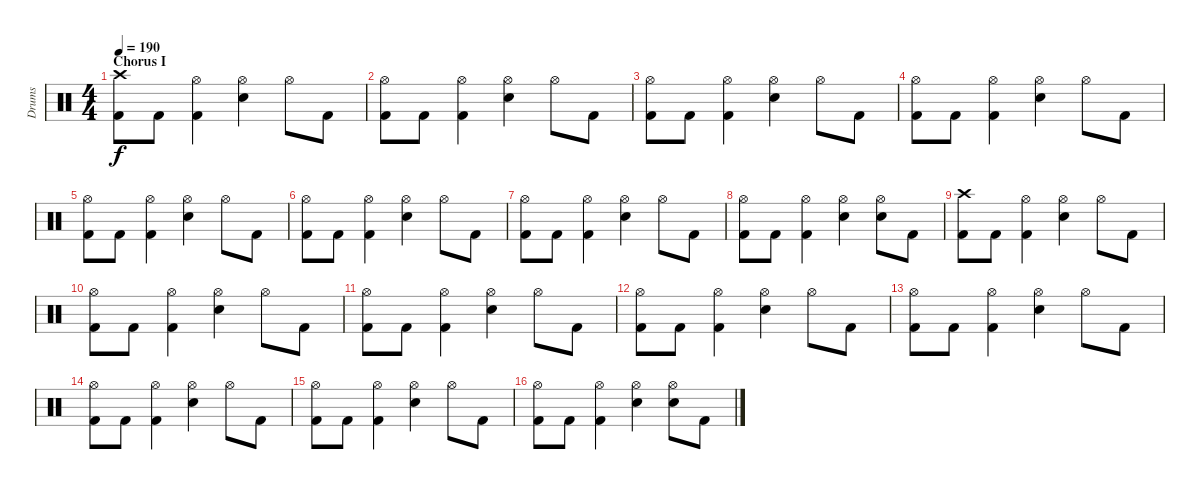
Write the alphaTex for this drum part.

\track ("Drums" "Drums") {instrument percussion}
\staff {score}
\articulation defaults
\ts (4 4)
\section ("" "Chorus I")
\tempo 190
\clef neutral
\ks c
("Crash high (hit)" "Kick (hit) 2").8{dy f} "Kick (hit) 2".8 ("Hi-Hat (open)" "Kick (hit) 2").4 ("Hi-Hat (open)" "Snare (hit) 2").4 "Hi-Hat (open)".8 "Kick (hit) 2".8 |
("Hi-Hat (open)" "Kick (hit) 2").8 "Kick (hit) 2".8 ("Hi-Hat (open)" "Kick (hit) 2").4 ("Hi-Hat (open)" "Snare (hit) 2").4 "Hi-Hat (open)".8 "Kick (hit) 2".8 |
("Hi-Hat (open)" "Kick (hit) 2").8 "Kick (hit) 2".8 ("Hi-Hat (open)" "Kick (hit) 2").4 ("Hi-Hat (open)" "Snare (hit) 2").4 "Hi-Hat (open)".8 "Kick (hit) 2".8 |
("Hi-Hat (open)" "Kick (hit) 2").8 "Kick (hit) 2".8 ("Hi-Hat (open)" "Kick (hit) 2").4 ("Hi-Hat (open)" "Snare (hit) 2").4 "Hi-Hat (open)".8 "Kick (hit) 2".8 |
("Hi-Hat (open)" "Kick (hit) 2").8 "Kick (hit) 2".8 ("Hi-Hat (open)" "Kick (hit) 2").4 ("Hi-Hat (open)" "Snare (hit) 2").4 "Hi-Hat (open)".8 "Kick (hit) 2".8 |
("Hi-Hat (open)" "Kick (hit) 2").8 "Kick (hit) 2".8 ("Hi-Hat (open)" "Kick (hit) 2").4 ("Hi-Hat (open)" "Snare (hit) 2").4 "Hi-Hat (open)".8 "Kick (hit) 2".8 |
("Hi-Hat (open)" "Kick (hit) 2").8 "Kick (hit) 2".8 ("Hi-Hat (open)" "Kick (hit) 2").4 ("Hi-Hat (open)" "Snare (hit) 2").4 "Hi-Hat (open)".8 "Kick (hit) 2".8 |
("Hi-Hat (open)" "Kick (hit) 2").8 "Kick (hit) 2".8 ("Hi-Hat (open)" "Kick (hit) 2").4 ("Hi-Hat (open)" "Snare (hit) 2").4 ("Hi-Hat (open)" "Snare (hit) 2").8 "Kick (hit) 2".8 |
("Crash high (hit)" "Kick (hit) 2").8 "Kick (hit) 2".8 ("Hi-Hat (open)" "Kick (hit) 2").4 ("Hi-Hat (open)" "Snare (hit) 2").4 "Hi-Hat (open)".8 "Kick (hit) 2".8 |
("Hi-Hat (open)" "Kick (hit) 2").8 "Kick (hit) 2".8 ("Hi-Hat (open)" "Kick (hit) 2").4 ("Hi-Hat (open)" "Snare (hit) 2").4 "Hi-Hat (open)".8 "Kick (hit) 2".8 |
("Hi-Hat (open)" "Kick (hit) 2").8 "Kick (hit) 2".8 ("Hi-Hat (open)" "Kick (hit) 2").4 ("Hi-Hat (open)" "Snare (hit) 2").4 "Hi-Hat (open)".8 "Kick (hit) 2".8 |
("Hi-Hat (open)" "Kick (hit) 2").8 "Kick (hit) 2".8 ("Hi-Hat (open)" "Kick (hit) 2").4 ("Hi-Hat (open)" "Snare (hit) 2").4 "Hi-Hat (open)".8 "Kick (hit) 2".8 |
("Hi-Hat (open)" "Kick (hit) 2").8 "Kick (hit) 2".8 ("Hi-Hat (open)" "Kick (hit) 2").4 ("Hi-Hat (open)" "Snare (hit) 2").4 "Hi-Hat (open)".8 "Kick (hit) 2".8 |
("Hi-Hat (open)" "Kick (hit) 2").8 "Kick (hit) 2".8 ("Hi-Hat (open)" "Kick (hit) 2").4 ("Hi-Hat (open)" "Snare (hit) 2").4 "Hi-Hat (open)".8 "Kick (hit) 2".8 |
("Hi-Hat (open)" "Kick (hit) 2").8 "Kick (hit) 2".8 ("Hi-Hat (open)" "Kick (hit) 2").4 ("Hi-Hat (open)" "Snare (hit) 2").4 "Hi-Hat (open)".8 "Kick (hit) 2".8 |
("Hi-Hat (open)" "Kick (hit) 2").8 "Kick (hit) 2".8 ("Hi-Hat (open)" "Kick (hit) 2").4 ("Hi-Hat (open)" "Snare (hit) 2").4 ("Hi-Hat (open)" "Snare (hit) 2").8 "Kick (hit) 2".8
